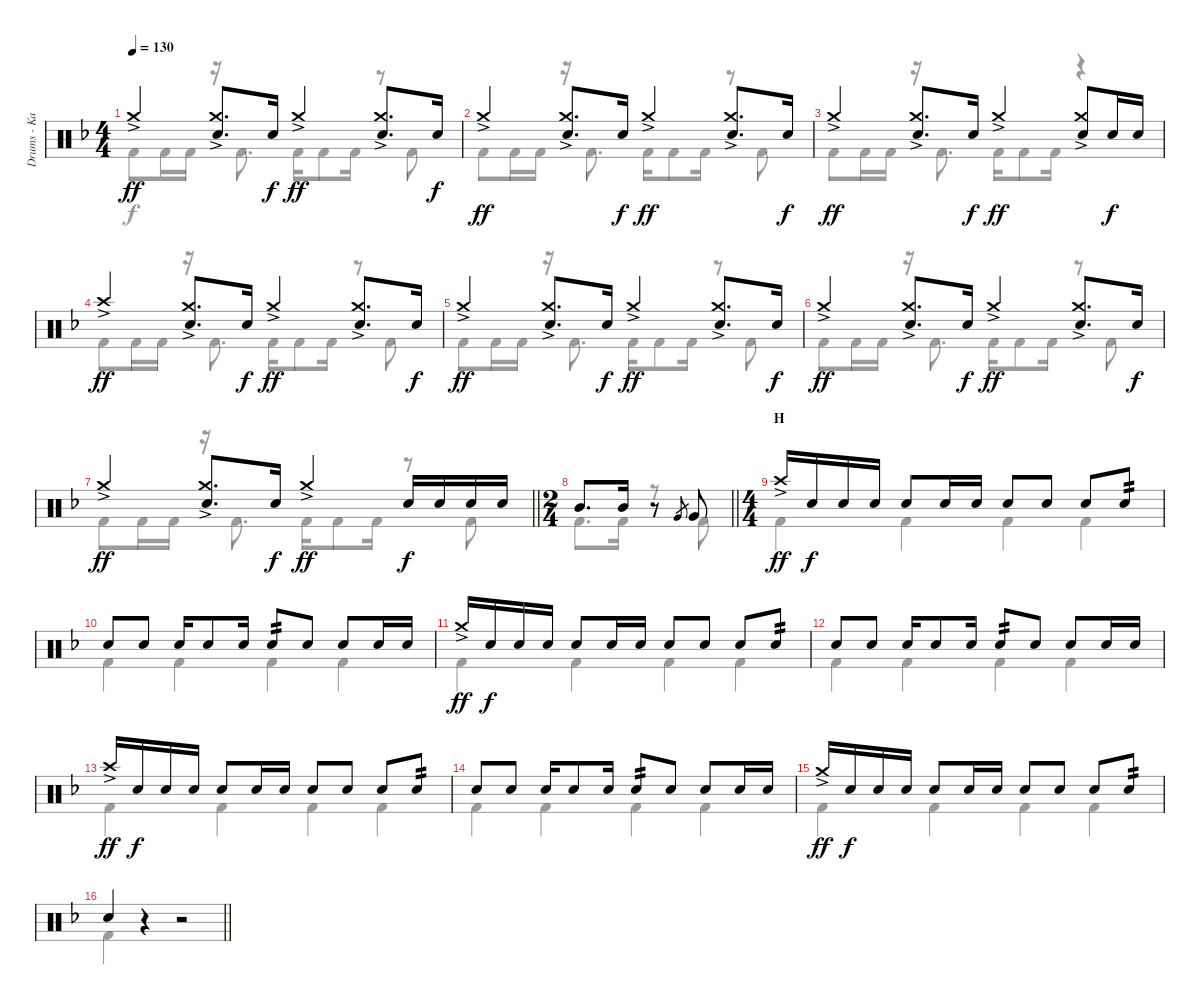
\track ("Drums - Kai" "Drums - Ka") {instrument percussion}
\staff {score}
\articulation defaults
\voice
\ts (4 4)
\tempo 130
\clef neutral
\ks f "Crash medium (hit)"{ac}.4{dy ff}
("Crash medium (hit)"{ac} "Electric Snare (hit)").8{d} "Electric Snare (hit)".16{dy f} "Crash medium (hit)"{ac}.4{dy ff} ("Crash medium (hit)"{ac} "Electric Snare (hit)").8{d} "Electric Snare (hit)".16{dy f} |
"Crash medium (hit)"{ac}.4{dy ff} ("Crash medium (hit)"{ac} "Electric Snare (hit)").8{d} "Electric Snare (hit)".16{dy f} "Crash medium (hit)"{ac}.4{dy ff} ("Crash medium (hit)"{ac} "Electric Snare (hit)").8{d} "Electric Snare (hit)".16{dy f} |
"Crash medium (hit)"{ac}.4{dy ff} ("Crash medium (hit)"{ac} "Electric Snare (hit)").8{d} "Electric Snare (hit)".16{dy f} "Crash medium (hit)"{ac}.4{dy ff} ("Crash medium (hit)"{ac} "Electric Snare (hit)").8 "Electric Snare (hit)".16{dy f} "Electric Snare (hit)".16 |
"Crash high (hit)"{ac}.4{dy ff} ("Crash medium (hit)"{ac} "Electric Snare (hit)").8{d} "Electric Snare (hit)".16{dy f} "Crash medium (hit)"{ac}.4{dy ff} ("Crash medium (hit)"{ac} "Electric Snare (hit)").8{d} "Electric Snare (hit)".16{dy f} |
"Crash medium (hit)"{ac}.4{dy ff} ("Crash medium (hit)"{ac} "Electric Snare (hit)").8{d} "Electric Snare (hit)".16{dy f} "Crash medium (hit)"{ac}.4{dy ff} ("Crash medium (hit)"{ac} "Electric Snare (hit)").8{d} "Electric Snare (hit)".16{dy f} |
"Crash medium (hit)"{ac}.4{dy ff} ("Crash medium (hit)"{ac} "Electric Snare (hit)").8{d} "Electric Snare (hit)".16{dy f} "Crash medium (hit)"{ac}.4{dy ff} ("Crash medium (hit)"{ac} "Electric Snare (hit)").8{d} "Electric Snare (hit)".16{dy f} |
\barLineRight lightlight "Crash medium (hit)"{ac}.4{dy ff}
("Crash medium (hit)"{ac} "Electric Snare (hit)").8{d} "Electric Snare (hit)".16{dy f} "Crash medium (hit)"{ac}.4{dy ff} "Electric Snare (hit)".16{dy f} "Electric Snare (hit)".16 "Electric Snare (hit)".16 "Electric Snare (hit)".16 |
\ts (2 4)
\barLineRight lightlight "Mid Tom (hit)".8{d} "Mid Tom (hit)".16
r.8 "Very Low Tom (hit)".8{gr} "Very Low Tom (hit)".8 |
\ts (4 4)
\section ("" "H")
"Crash high (hit)"{ac}.16{dy ff} "Electric Snare (hit)".16{dy f} "Electric Snare (hit)".16 "Electric Snare (hit)".16 "Electric Snare (hit)".8 "Electric Snare (hit)".16 "Electric Snare (hit)".16 "Electric Snare (hit)".8 "Electric Snare (hit)".8 "Electric Snare (hit)".8 "Electric Snare (hit)".8{tp 2} |
"Electric Snare (hit)".8 "Electric Snare (hit)".8 "Electric Snare (hit)".16 "Electric Snare (hit)".8 "Electric Snare (hit)".16 "Electric Snare (hit)".8{tp 2} "Electric Snare (hit)".8 "Electric Snare (hit)".8 "Electric Snare (hit)".16 "Electric Snare (hit)".16 |
"Crash medium (hit)"{ac}.16{dy ff} "Electric Snare (hit)".16{dy f} "Electric Snare (hit)".16 "Electric Snare (hit)".16 "Electric Snare (hit)".8 "Electric Snare (hit)".16 "Electric Snare (hit)".16 "Electric Snare (hit)".8 "Electric Snare (hit)".8 "Electric Snare (hit)".8 "Electric Snare (hit)".8{tp 2} |
"Electric Snare (hit)".8 "Electric Snare (hit)".8 "Electric Snare (hit)".16 "Electric Snare (hit)".8 "Electric Snare (hit)".16 "Electric Snare (hit)".8{tp 2} "Electric Snare (hit)".8 "Electric Snare (hit)".8 "Electric Snare (hit)".16 "Electric Snare (hit)".16 |
"Crash high (hit)"{ac}.16{dy ff} "Electric Snare (hit)".16{dy f} "Electric Snare (hit)".16 "Electric Snare (hit)".16 "Electric Snare (hit)".8 "Electric Snare (hit)".16 "Electric Snare (hit)".16 "Electric Snare (hit)".8 "Electric Snare (hit)".8 "Electric Snare (hit)".8 "Electric Snare (hit)".8{tp 2} |
"Electric Snare (hit)".8 "Electric Snare (hit)".8 "Electric Snare (hit)".16 "Electric Snare (hit)".8 "Electric Snare (hit)".16 "Electric Snare (hit)".8{tp 2} "Electric Snare (hit)".8 "Electric Snare (hit)".8 "Electric Snare (hit)".16 "Electric Snare (hit)".16 |
"Crash medium (hit)"{ac}.16{dy ff} "Electric Snare (hit)".16{dy f} "Electric Snare (hit)".16 "Electric Snare (hit)".16 "Electric Snare (hit)".8 "Electric Snare (hit)".16 "Electric Snare (hit)".16 "Electric Snare (hit)".8 "Electric Snare (hit)".8 "Electric Snare (hit)".8 "Electric Snare (hit)".8{tp 2} |
\barLineRight lightlight "Electric Snare (hit)".4
r.4 r.2
\voice
\clef neutral
\ottava regular
\simile none
\ks f "Kick (hit) 2".8{dy f} "Kick (hit) 2".16 "Kick (hit) 2".16
r.16 "Kick (hit) 2".8{d} "Kick (hit) 2".16 "Kick (hit) 2".8 "Kick (hit) 2".16 r.8 "Kick (hit) 2".8 |
"Kick (hit) 2".8 "Kick (hit) 2".16 "Kick (hit) 2".16 r.16 "Kick (hit) 2".8{d} "Kick (hit) 2".16 "Kick (hit) 2".8 "Kick (hit) 2".16 r.8 "Kick (hit) 2".8 |
"Kick (hit) 2".8 "Kick (hit) 2".16 "Kick (hit) 2".16 r.16 "Kick (hit) 2".8{d} "Kick (hit) 2".16 "Kick (hit) 2".8 "Kick (hit) 2".16 r.4 |
"Kick (hit) 2".8 "Kick (hit) 2".16 "Kick (hit) 2".16 r.16 "Kick (hit) 2".8{d} "Kick (hit) 2".16 "Kick (hit) 2".8 "Kick (hit) 2".16 r.8 "Kick (hit) 2".8 |
"Kick (hit) 2".8 "Kick (hit) 2".16 "Kick (hit) 2".16 r.16 "Kick (hit) 2".8{d} "Kick (hit) 2".16 "Kick (hit) 2".8 "Kick (hit) 2".16 r.8 "Kick (hit) 2".8 |
"Kick (hit) 2".8 "Kick (hit) 2".16 "Kick (hit) 2".16 r.16 "Kick (hit) 2".8{d} "Kick (hit) 2".16 "Kick (hit) 2".8 "Kick (hit) 2".16 r.8 "Kick (hit) 2".8 |
\barLineRight lightlight "Kick (hit) 2".8 "Kick (hit) 2".16 "Kick (hit) 2".16
r.16 "Kick (hit) 2".8{d} "Kick (hit) 2".16 "Kick (hit) 2".8 "Kick (hit) 2".16 r.8 "Kick (hit) 2".8 |
\barLineRight lightlight "Kick (hit) 2".8{d} "Kick (hit) 2".16
r.8 "Kick (hit) 2".8 |
"Kick (hit) 2".4 "Kick (hit) 2".4 "Kick (hit) 2".4 "Kick (hit) 2".4 |
"Kick (hit) 2".4 "Kick (hit) 2".4 "Kick (hit) 2".4 "Kick (hit) 2".4 |
"Kick (hit) 2".4 "Kick (hit) 2".4 "Kick (hit) 2".4 "Kick (hit) 2".4 |
"Kick (hit) 2".4 "Kick (hit) 2".4 "Kick (hit) 2".4 "Kick (hit) 2".4 |
"Kick (hit) 2".4 "Kick (hit) 2".4 "Kick (hit) 2".4 "Kick (hit) 2".4 |
"Kick (hit) 2".4 "Kick (hit) 2".4 "Kick (hit) 2".4 "Kick (hit) 2".4 |
"Kick (hit) 2".4 "Kick (hit) 2".4 "Kick (hit) 2".4 "Kick (hit) 2".4 |
\barLineRight lightlight "Kick (hit) 2".4
r.4 r.2
